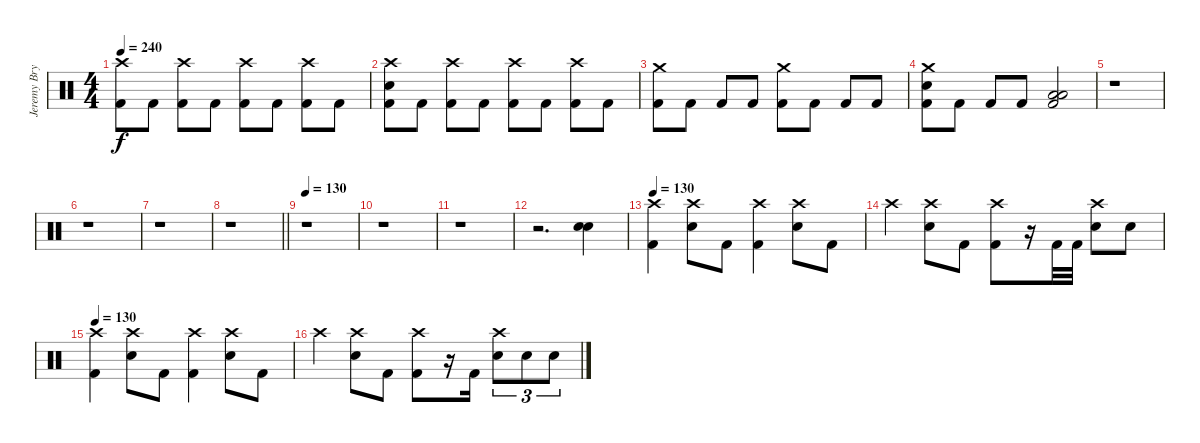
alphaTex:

\track ("Jeremy Bryan - Drums" "Jeremy Bry") {instrument percussion}
\staff {score}
\articulation defaults
\ts (4 4)
\tempo 240
\clef neutral
\ks c
("Crash high (hit)" "Kick (hit) 2").8{dy f} "Kick (hit) 2".8 ("Crash high (hit)" "Kick (hit) 2").8 "Kick (hit) 2".8 ("Crash high (hit)" "Kick (hit) 2").8 "Kick (hit) 2".8 ("Crash high (hit)" "Kick (hit) 2").8 "Kick (hit) 2".8 |
("Crash high (hit)" "Electric Snare (hit)" "Kick (hit) 2").8 "Kick (hit) 2".8 ("Crash high (hit)" "Kick (hit) 2").8 "Kick (hit) 2".8 ("Crash high (hit)" "Kick (hit) 2").8 "Kick (hit) 2".8 ("Crash high (hit)" "Kick (hit) 2").8 "Kick (hit) 2".8 |
("Crash medium (hit)" "Kick (hit) 2").8 "Kick (hit) 2".8 "Kick (hit) 2".8 "Kick (hit) 2".8 ("Crash medium (hit)" "Kick (hit) 2").8 "Kick (hit) 2".8 "Kick (hit) 2".8 "Kick (hit) 2".8 |
("Crash medium (hit)" "Electric Snare (hit)" "Kick (hit) 2").8 "Kick (hit) 2".8 "Kick (hit) 2".8 "Kick (hit) 2".8 ("Low Tom (hit)" "Low Floor Tom (hit)" "Kick (hit) 2").2 |
r.1 |
r.1 |
r.1 |
\barLineRight lightlight
r.1 |
\tempo 130
r.1 |
r.1 |
r.1 |
r.2{d} ("Electric Snare (hit)" "Electric Snare (hit)").4 |
\tempo 130
("Crash high (hit)" "Kick (hit) 2").4 ("Crash high (hit)" "Electric Snare (hit)").8 "Kick (hit) 2".8 ("Crash high (hit)" "Kick (hit) 2").4 ("Crash high (hit)" "Electric Snare (hit)").8 "Kick (hit) 2".8 |
"Crash high (hit)".4 ("Crash high (hit)" "Electric Snare (hit)").8 "Kick (hit) 2".8 ("Crash high (hit)" "Kick (hit) 2").8 r.16 "Kick (hit) 2".32 "Kick (hit) 2".32 ("Crash high (hit)" "Electric Snare (hit)").8 "Electric Snare (hit)".8 |
\tempo 130
("Crash high (hit)" "Kick (hit) 2").4 ("Crash high (hit)" "Electric Snare (hit)").8 "Kick (hit) 2".8 ("Crash high (hit)" "Kick (hit) 2").4 ("Crash high (hit)" "Electric Snare (hit)").8 "Kick (hit) 2".8 |
"Crash high (hit)".4 ("Crash high (hit)" "Electric Snare (hit)").8 "Kick (hit) 2".8 ("Crash high (hit)" "Kick (hit) 2").8 r.16 "Kick (hit) 2".16 ("Crash high (hit)" "Electric Snare (hit)").8{tu (3 2)} "Electric Snare (hit)".8{tu (3 2)} "Electric Snare (hit)".8{tu (3 2)}
